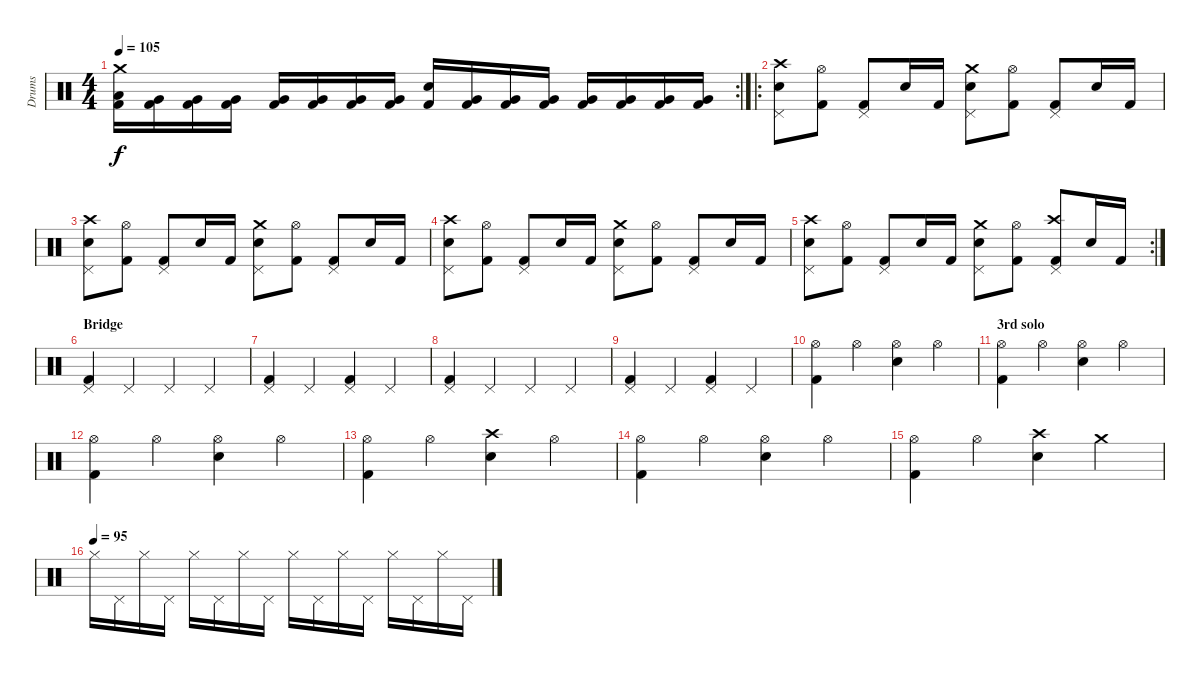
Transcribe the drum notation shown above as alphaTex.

\track ("Drums" "Drums") {instrument percussion}
\staff {score}
\articulation defaults
\rc 2
\ts (4 4)
\tempo 105
\clef neutral
\ks c
("Crash medium (hit)" "Low Floor Tom (hit)" "Kick (hit) 2").16{dy f} ("Very Low Tom (hit)" "Kick (hit) 2").16 ("Very Low Tom (hit)" "Kick (hit) 2").16 ("Very Low Tom (hit)" "Kick (hit) 2").16 ("Very Low Tom (hit)" "Kick (hit) 2").16 ("Very Low Tom (hit)" "Kick (hit) 2").16 ("Very Low Tom (hit)" "Kick (hit) 2").16 ("Very Low Tom (hit)" "Kick (hit) 2").16 ("Electric Snare (hit)" "Kick (hit) 2").16 ("Very Low Tom (hit)" "Kick (hit) 2").16 ("Very Low Tom (hit)" "Kick (hit) 2").16 ("Very Low Tom (hit)" "Kick (hit) 2").16 ("Very Low Tom (hit)" "Kick (hit) 2").16 ("Very Low Tom (hit)" "Kick (hit) 2").16 ("Very Low Tom (hit)" "Kick (hit) 2").16 ("Very Low Tom (hit)" "Kick (hit) 2").16 |
\ro
("Crash high (hit)" "Pedal Hi-Hat (hit)" "Electric Snare (hit)").8 ("Hi-Hat (open)" "Kick (hit) 2").8 ("Pedal Hi-Hat (hit)" "Kick (hit) 2").8 "Electric Snare (hit)".16 "Kick (hit) 2".16 ("Crash medium (hit)" "Pedal Hi-Hat (hit)" "Electric Snare (hit)").8 ("Hi-Hat (open)" "Kick (hit) 2").8 ("Pedal Hi-Hat (hit)" "Kick (hit) 2").8 "Electric Snare (hit)".16 "Kick (hit) 2".16 |
("Crash high (hit)" "Pedal Hi-Hat (hit)" "Electric Snare (hit)").8 ("Hi-Hat (open)" "Kick (hit) 2").8 ("Pedal Hi-Hat (hit)" "Kick (hit) 2").8 "Electric Snare (hit)".16 "Kick (hit) 2".16 ("Crash medium (hit)" "Pedal Hi-Hat (hit)" "Electric Snare (hit)").8 ("Hi-Hat (open)" "Kick (hit) 2").8 ("Pedal Hi-Hat (hit)" "Kick (hit) 2").8 "Electric Snare (hit)".16 "Kick (hit) 2".16 |
("Crash high (hit)" "Pedal Hi-Hat (hit)" "Electric Snare (hit)").8 ("Hi-Hat (open)" "Kick (hit) 2").8 ("Pedal Hi-Hat (hit)" "Kick (hit) 2").8 "Electric Snare (hit)".16 "Kick (hit) 2".16 ("Crash medium (hit)" "Pedal Hi-Hat (hit)" "Electric Snare (hit)").8 ("Hi-Hat (open)" "Kick (hit) 2").8 ("Pedal Hi-Hat (hit)" "Kick (hit) 2").8 "Electric Snare (hit)".16 "Kick (hit) 2".16 |
\rc 2
("Crash high (hit)" "Pedal Hi-Hat (hit)" "Electric Snare (hit)").8 ("Hi-Hat (open)" "Kick (hit) 2").8 ("Pedal Hi-Hat (hit)" "Kick (hit) 2").8 "Electric Snare (hit)".16 "Kick (hit) 2".16 ("Crash medium (hit)" "Pedal Hi-Hat (hit)" "Electric Snare (hit)").8 ("Hi-Hat (open)" "Kick (hit) 2").8 ("Crash high (hit)" "Pedal Hi-Hat (hit)" "Kick (hit) 2").8 "Electric Snare (hit)".16 "Kick (hit) 2".16 |
\section ("" "Bridge")
("Pedal Hi-Hat (hit)" "Kick (hit) 2").4 "Pedal Hi-Hat (hit)".4 "Pedal Hi-Hat (hit)".4 "Pedal Hi-Hat (hit)".4 |
("Pedal Hi-Hat (hit)" "Kick (hit) 2").4 "Pedal Hi-Hat (hit)".4 ("Pedal Hi-Hat (hit)" "Kick (hit) 2").4 "Pedal Hi-Hat (hit)".4 |
("Pedal Hi-Hat (hit)" "Kick (hit) 2").4 "Pedal Hi-Hat (hit)".4 "Pedal Hi-Hat (hit)".4 "Pedal Hi-Hat (hit)".4 |
("Pedal Hi-Hat (hit)" "Kick (hit) 2").4 "Pedal Hi-Hat (hit)".4 ("Pedal Hi-Hat (hit)" "Kick (hit) 2").4 "Pedal Hi-Hat (hit)".4 |
("Hi-Hat (open)" "Kick (hit) 2").4 "Hi-Hat (open)".4 ("Hi-Hat (open)" "Snare (hit) 2").4 "Hi-Hat (open)".4 |
\section ("" "3rd solo")
("Hi-Hat (open)" "Kick (hit) 2").4 "Hi-Hat (open)".4 ("Hi-Hat (open)" "Snare (hit) 2").4 "Hi-Hat (open)".4 |
("Hi-Hat (open)" "Kick (hit) 2").4 "Hi-Hat (open)".4 ("Hi-Hat (open)" "Snare (hit) 2").4 "Hi-Hat (open)".4 |
("Hi-Hat (open)" "Kick (hit) 2").4 "Hi-Hat (open)".4 ("Crash high (hit)" "Snare (hit) 2").4 "Hi-Hat (open)".4 |
("Hi-Hat (open)" "Kick (hit) 2").4 "Hi-Hat (open)".4 ("Hi-Hat (open)" "Snare (hit) 2").4 "Hi-Hat (open)".4 |
("Hi-Hat (open)" "Kick (hit) 2").4 "Hi-Hat (open)".4 ("Crash high (hit)" "Snare (hit) 2").4 "Crash medium (hit)".4 |
\tempo (95)
"Hi-Hat (closed)".16 "Pedal Hi-Hat (hit)".16 "Hi-Hat (closed)".16 "Pedal Hi-Hat (hit)".16 "Hi-Hat (closed)".16 "Pedal Hi-Hat (hit)".16 "Hi-Hat (closed)".16 "Pedal Hi-Hat (hit)".16 "Hi-Hat (closed)".16 "Pedal Hi-Hat (hit)".16 "Hi-Hat (closed)".16 "Pedal Hi-Hat (hit)".16 "Hi-Hat (closed)".16 "Pedal Hi-Hat (hit)".16 "Hi-Hat (closed)".16 "Pedal Hi-Hat (hit)".16
